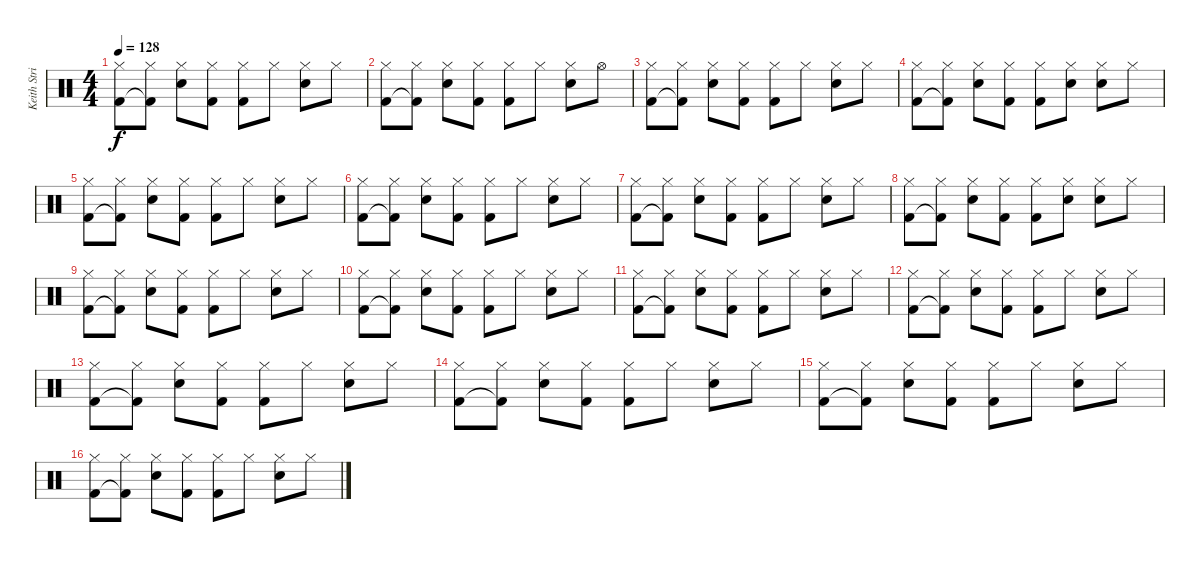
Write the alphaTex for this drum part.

\track ("Keith Strickland (drums)" "Keith Stri") {instrument percussion}
\staff {score}
\articulation defaults
\ts (4 4)
\tempo 128
\clef neutral
\ks c
("Hi-Hat (closed)" "Kick (hit) 2").8{dy f} ("Hi-Hat (closed)" "Kick (hit) 2"{t}).8 ("Hi-Hat (closed)" "Snare (hit) 2").8 ("Hi-Hat (closed)" "Kick (hit) 2").8 ("Hi-Hat (closed)" "Kick (hit) 2").8 "Hi-Hat (closed)".8 ("Hi-Hat (closed)" "Snare (hit) 2").8 "Hi-Hat (closed)".8 |
("Hi-Hat (closed)" "Kick (hit) 2").8 ("Hi-Hat (closed)" "Kick (hit) 2"{t}).8 ("Hi-Hat (closed)" "Snare (hit) 2").8 ("Hi-Hat (closed)" "Kick (hit) 2").8 ("Hi-Hat (closed)" "Kick (hit) 2").8 "Hi-Hat (closed)".8 ("Hi-Hat (closed)" "Snare (hit) 2").8 "Hi-Hat (open)".8 |
("Hi-Hat (closed)" "Kick (hit) 2").8 ("Hi-Hat (closed)" "Kick (hit) 2"{t}).8 ("Hi-Hat (closed)" "Snare (hit) 2").8 ("Hi-Hat (closed)" "Kick (hit) 2").8 ("Hi-Hat (closed)" "Kick (hit) 2").8 "Hi-Hat (closed)".8 ("Hi-Hat (closed)" "Snare (hit) 2").8 "Hi-Hat (closed)".8 |
("Hi-Hat (closed)" "Kick (hit) 2").8 ("Hi-Hat (closed)" "Kick (hit) 2"{t}).8 ("Hi-Hat (closed)" "Snare (hit) 2").8 ("Hi-Hat (closed)" "Kick (hit) 2").8 ("Hi-Hat (closed)" "Kick (hit) 2").8 ("Hi-Hat (closed)" "Snare (hit) 2").8 ("Hi-Hat (closed)" "Snare (hit) 2").8 "Hi-Hat (closed)".8 |
("Hi-Hat (closed)" "Kick (hit) 2").8 ("Hi-Hat (closed)" "Kick (hit) 2"{t}).8 ("Hi-Hat (closed)" "Snare (hit) 2").8 ("Hi-Hat (closed)" "Kick (hit) 2").8 ("Hi-Hat (closed)" "Kick (hit) 2").8 "Hi-Hat (closed)".8 ("Hi-Hat (closed)" "Snare (hit) 2").8 "Hi-Hat (closed)".8 |
("Hi-Hat (closed)" "Kick (hit) 2").8 ("Hi-Hat (closed)" "Kick (hit) 2"{t}).8 ("Hi-Hat (closed)" "Snare (hit) 2").8 ("Hi-Hat (closed)" "Kick (hit) 2").8 ("Hi-Hat (closed)" "Kick (hit) 2").8 "Hi-Hat (closed)".8 ("Hi-Hat (closed)" "Snare (hit) 2").8 "Hi-Hat (closed)".8 |
("Hi-Hat (closed)" "Kick (hit) 2").8 ("Hi-Hat (closed)" "Kick (hit) 2"{t}).8 ("Hi-Hat (closed)" "Snare (hit) 2").8 ("Hi-Hat (closed)" "Kick (hit) 2").8 ("Hi-Hat (closed)" "Kick (hit) 2").8 "Hi-Hat (closed)".8 ("Hi-Hat (closed)" "Snare (hit) 2").8 "Hi-Hat (closed)".8 |
("Hi-Hat (closed)" "Kick (hit) 2").8 ("Hi-Hat (closed)" "Kick (hit) 2"{t}).8 ("Hi-Hat (closed)" "Snare (hit) 2").8 ("Hi-Hat (closed)" "Kick (hit) 2").8 ("Hi-Hat (closed)" "Kick (hit) 2").8 ("Hi-Hat (closed)" "Snare (hit) 2").8 ("Hi-Hat (closed)" "Snare (hit) 2").8 "Hi-Hat (closed)".8 |
("Hi-Hat (closed)" "Kick (hit) 2").8 ("Hi-Hat (closed)" "Kick (hit) 2"{t}).8 ("Hi-Hat (closed)" "Snare (hit) 2").8 ("Hi-Hat (closed)" "Kick (hit) 2").8 ("Hi-Hat (closed)" "Kick (hit) 2").8 "Hi-Hat (closed)".8 ("Hi-Hat (closed)" "Snare (hit) 2").8 "Hi-Hat (closed)".8 |
("Hi-Hat (closed)" "Kick (hit) 2").8 ("Hi-Hat (closed)" "Kick (hit) 2"{t}).8 ("Hi-Hat (closed)" "Snare (hit) 2").8 ("Hi-Hat (closed)" "Kick (hit) 2").8 ("Hi-Hat (closed)" "Kick (hit) 2").8 "Hi-Hat (closed)".8 ("Hi-Hat (closed)" "Snare (hit) 2").8 "Hi-Hat (closed)".8 |
("Hi-Hat (closed)" "Kick (hit) 2").8 ("Hi-Hat (closed)" "Kick (hit) 2"{t}).8 ("Hi-Hat (closed)" "Snare (hit) 2").8 ("Hi-Hat (closed)" "Kick (hit) 2").8 ("Hi-Hat (closed)" "Kick (hit) 2").8 "Hi-Hat (closed)".8 ("Hi-Hat (closed)" "Snare (hit) 2").8 "Hi-Hat (closed)".8 |
("Hi-Hat (closed)" "Kick (hit) 2").8 ("Hi-Hat (closed)" "Kick (hit) 2"{t}).8 ("Hi-Hat (closed)" "Snare (hit) 2").8 ("Hi-Hat (closed)" "Kick (hit) 2").8 ("Hi-Hat (closed)" "Kick (hit) 2").8 "Hi-Hat (closed)".8 ("Hi-Hat (closed)" "Snare (hit) 2").8 "Hi-Hat (closed)".8 |
("Hi-Hat (closed)" "Kick (hit) 2").8 ("Hi-Hat (closed)" "Kick (hit) 2"{t}).8 ("Hi-Hat (closed)" "Snare (hit) 2").8 ("Hi-Hat (closed)" "Kick (hit) 2").8 ("Hi-Hat (closed)" "Kick (hit) 2").8 "Hi-Hat (closed)".8 ("Hi-Hat (closed)" "Snare (hit) 2").8 "Hi-Hat (closed)".8 |
("Hi-Hat (closed)" "Kick (hit) 2").8 ("Hi-Hat (closed)" "Kick (hit) 2"{t}).8 ("Hi-Hat (closed)" "Snare (hit) 2").8 ("Hi-Hat (closed)" "Kick (hit) 2").8 ("Hi-Hat (closed)" "Kick (hit) 2").8 "Hi-Hat (closed)".8 ("Hi-Hat (closed)" "Snare (hit) 2").8 "Hi-Hat (closed)".8 |
("Hi-Hat (closed)" "Kick (hit) 2").8 ("Hi-Hat (closed)" "Kick (hit) 2"{t}).8 ("Hi-Hat (closed)" "Snare (hit) 2").8 ("Hi-Hat (closed)" "Kick (hit) 2").8 ("Hi-Hat (closed)" "Kick (hit) 2").8 "Hi-Hat (closed)".8 ("Hi-Hat (closed)" "Snare (hit) 2").8 "Hi-Hat (closed)".8 |
("Hi-Hat (closed)" "Kick (hit) 2").8 ("Hi-Hat (closed)" "Kick (hit) 2"{t}).8 ("Hi-Hat (closed)" "Snare (hit) 2").8 ("Hi-Hat (closed)" "Kick (hit) 2").8 ("Hi-Hat (closed)" "Kick (hit) 2").8 "Hi-Hat (closed)".8 ("Hi-Hat (closed)" "Snare (hit) 2").8 "Hi-Hat (closed)".8
